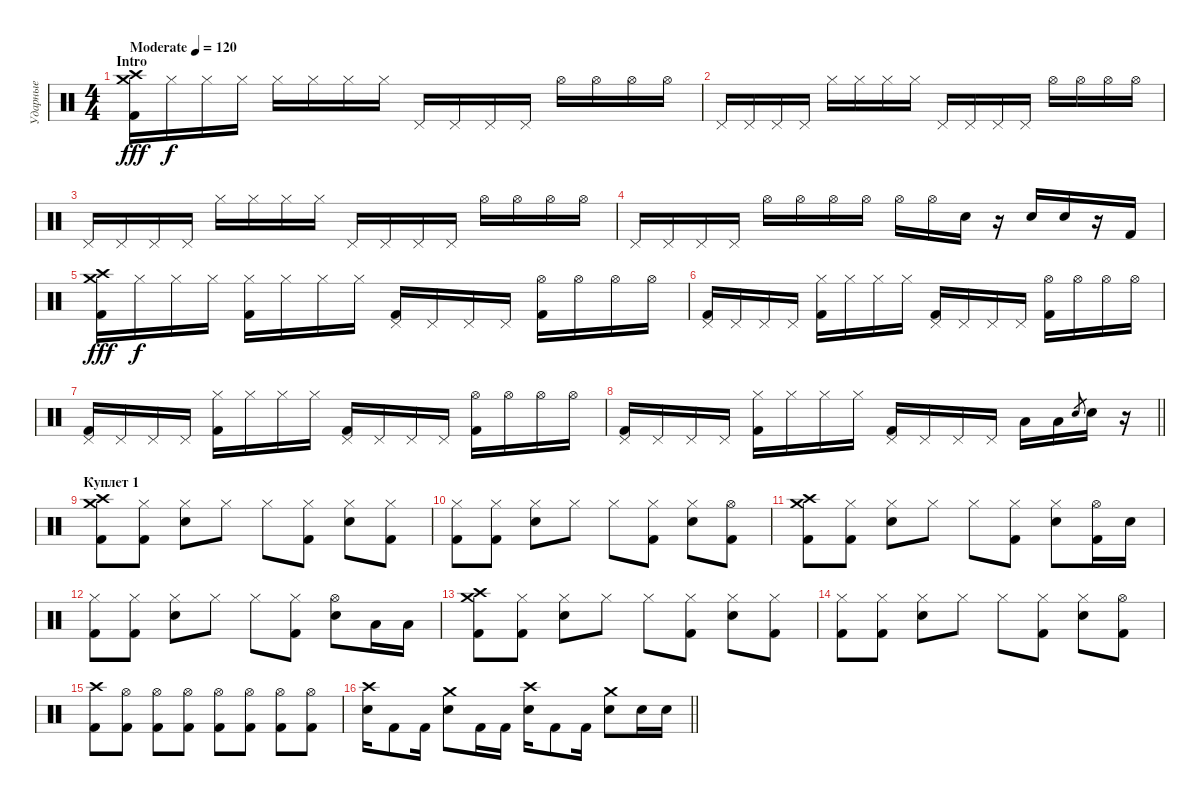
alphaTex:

\track ("Ударные" "Ударные") {instrument percussion}
\staff
\articulation defaults
\ts (4 4)
\section ("" "Intro")
\tempo (120 "Moderate")
\clef neutral
\ks c
("Crash high (hit)" "Crash medium (hit)" "Kick (hit) 2").16{dy fff} "Hi-Hat (closed)".16{dy f} "Hi-Hat (closed)".16 "Hi-Hat (closed)".16 "Hi-Hat (closed)".16 "Hi-Hat (closed)".16 "Hi-Hat (closed)".16 "Hi-Hat (closed)".16 "Pedal Hi-Hat (hit)".16 "Pedal Hi-Hat (hit)".16 "Pedal Hi-Hat (hit)".16 "Pedal Hi-Hat (hit)".16 "Hi-Hat (open)".16 "Hi-Hat (open)".16 "Hi-Hat (open)".16 "Hi-Hat (open)".16 |
"Pedal Hi-Hat (hit)".16 "Pedal Hi-Hat (hit)".16 "Pedal Hi-Hat (hit)".16 "Pedal Hi-Hat (hit)".16 "Hi-Hat (closed)".16 "Hi-Hat (closed)".16 "Hi-Hat (closed)".16 "Hi-Hat (closed)".16 "Pedal Hi-Hat (hit)".16 "Pedal Hi-Hat (hit)".16 "Pedal Hi-Hat (hit)".16 "Pedal Hi-Hat (hit)".16 "Hi-Hat (open)".16 "Hi-Hat (open)".16 "Hi-Hat (open)".16 "Hi-Hat (open)".16 |
"Pedal Hi-Hat (hit)".16 "Pedal Hi-Hat (hit)".16 "Pedal Hi-Hat (hit)".16 "Pedal Hi-Hat (hit)".16 "Hi-Hat (closed)".16 "Hi-Hat (closed)".16 "Hi-Hat (closed)".16 "Hi-Hat (closed)".16 "Pedal Hi-Hat (hit)".16 "Pedal Hi-Hat (hit)".16 "Pedal Hi-Hat (hit)".16 "Pedal Hi-Hat (hit)".16 "Hi-Hat (open)".16 "Hi-Hat (open)".16 "Hi-Hat (open)".16 "Hi-Hat (open)".16 |
"Pedal Hi-Hat (hit)".16 "Pedal Hi-Hat (hit)".16 "Pedal Hi-Hat (hit)".16 "Pedal Hi-Hat (hit)".16 "Hi-Hat (open)".16 "Hi-Hat (open)".16 "Hi-Hat (open)".16 "Hi-Hat (open)".16 "Hi-Hat (open)".16 "Hi-Hat (open)".16 "Electric Snare (hit)".16 r.16 "Electric Snare (hit)".16 "Electric Snare (hit)".16 r.16 "Kick (hit) 2".16 |
("Crash high (hit)" "Crash medium (hit)" "Kick (hit) 2").16{dy fff} "Hi-Hat (closed)".16{dy f} "Hi-Hat (closed)".16 "Hi-Hat (closed)".16 ("Hi-Hat (closed)" "Kick (hit) 2").16 "Hi-Hat (closed)".16 "Hi-Hat (closed)".16 "Hi-Hat (closed)".16 ("Pedal Hi-Hat (hit)" "Kick (hit) 2").16 "Pedal Hi-Hat (hit)".16 "Pedal Hi-Hat (hit)".16 "Pedal Hi-Hat (hit)".16 ("Hi-Hat (open)" "Kick (hit) 2").16 "Hi-Hat (open)".16 "Hi-Hat (open)".16 "Hi-Hat (open)".16 |
("Pedal Hi-Hat (hit)" "Kick (hit) 2").16 "Pedal Hi-Hat (hit)".16 "Pedal Hi-Hat (hit)".16 "Pedal Hi-Hat (hit)".16 ("Hi-Hat (closed)" "Kick (hit) 2").16 "Hi-Hat (closed)".16 "Hi-Hat (closed)".16 "Hi-Hat (closed)".16 ("Pedal Hi-Hat (hit)" "Kick (hit) 2").16 "Pedal Hi-Hat (hit)".16 "Pedal Hi-Hat (hit)".16 "Pedal Hi-Hat (hit)".16 ("Hi-Hat (open)" "Kick (hit) 2").16 "Hi-Hat (open)".16 "Hi-Hat (open)".16 "Hi-Hat (open)".16 |
("Pedal Hi-Hat (hit)" "Kick (hit) 2").16 "Pedal Hi-Hat (hit)".16 "Pedal Hi-Hat (hit)".16 "Pedal Hi-Hat (hit)".16 ("Hi-Hat (closed)" "Kick (hit) 2").16 "Hi-Hat (closed)".16 "Hi-Hat (closed)".16 "Hi-Hat (closed)".16 ("Pedal Hi-Hat (hit)" "Kick (hit) 2").16 "Pedal Hi-Hat (hit)".16 "Pedal Hi-Hat (hit)".16 "Pedal Hi-Hat (hit)".16 ("Hi-Hat (open)" "Kick (hit) 2").16 "Hi-Hat (open)".16 "Hi-Hat (open)".16 "Hi-Hat (open)".16 |
\barLineRight lightlight
("Pedal Hi-Hat (hit)" "Kick (hit) 2").16 "Pedal Hi-Hat (hit)".16 "Pedal Hi-Hat (hit)".16 "Pedal Hi-Hat (hit)".16 ("Hi-Hat (closed)" "Kick (hit) 2").16 "Hi-Hat (closed)".16 "Hi-Hat (closed)".16 "Hi-Hat (closed)".16 ("Pedal Hi-Hat (hit)" "Kick (hit) 2").16 "Pedal Hi-Hat (hit)".16 "Pedal Hi-Hat (hit)".16 "Pedal Hi-Hat (hit)".16 "Low Tom (hit)".16 "Low Tom (hit)".16 "Electric Snare (hit)".8{gr} "Electric Snare (hit)".16 r.16 |
\section ("" "Куплет 1")
("Crash high (hit)" "Crash medium (hit)" "Kick (hit) 2").8 ("Hi-Hat (closed)" "Kick (hit) 2").8 ("Hi-Hat (closed)" "Electric Snare (hit)").8 "Hi-Hat (closed)".8 "Hi-Hat (closed)".8 ("Hi-Hat (closed)" "Kick (hit) 2").8 ("Hi-Hat (closed)" "Electric Snare (hit)").8 ("Hi-Hat (closed)" "Kick (hit) 2").8 |
("Hi-Hat (closed)" "Kick (hit) 2").8 ("Hi-Hat (closed)" "Kick (hit) 2").8 ("Hi-Hat (closed)" "Electric Snare (hit)").8 "Hi-Hat (closed)".8 "Hi-Hat (closed)".8 ("Hi-Hat (closed)" "Kick (hit) 2").8 ("Hi-Hat (closed)" "Electric Snare (hit)").8 ("Hi-Hat (open)" "Kick (hit) 2").8 |
("Crash high (hit)" "Crash medium (hit)" "Kick (hit) 2").8 ("Hi-Hat (closed)" "Kick (hit) 2").8 ("Hi-Hat (closed)" "Electric Snare (hit)").8 "Hi-Hat (closed)".8 "Hi-Hat (closed)".8 ("Hi-Hat (closed)" "Kick (hit) 2").8 ("Hi-Hat (closed)" "Electric Snare (hit)").8 ("Hi-Hat (open)" "Kick (hit) 2").16 "Electric Snare (hit)".16 |
("Hi-Hat (closed)" "Kick (hit) 2").8 ("Hi-Hat (closed)" "Kick (hit) 2").8 ("Hi-Hat (closed)" "Electric Snare (hit)").8 "Hi-Hat (closed)".8 "Hi-Hat (closed)".8 ("Hi-Hat (closed)" "Kick (hit) 2").8 ("Hi-Hat (open)" "Electric Snare (hit)").8 "Low Tom (hit)".16 "Low Tom (hit)".16 |
("Crash high (hit)" "Crash medium (hit)" "Kick (hit) 2").8 ("Hi-Hat (closed)" "Kick (hit) 2").8 ("Hi-Hat (closed)" "Electric Snare (hit)").8 "Hi-Hat (closed)".8 "Hi-Hat (closed)".8 ("Hi-Hat (closed)" "Kick (hit) 2").8 ("Hi-Hat (closed)" "Electric Snare (hit)").8 ("Hi-Hat (closed)" "Kick (hit) 2").8 |
("Hi-Hat (closed)" "Kick (hit) 2").8 ("Hi-Hat (closed)" "Kick (hit) 2").8 ("Hi-Hat (closed)" "Electric Snare (hit)").8 "Hi-Hat (closed)".8 "Hi-Hat (closed)".8 ("Hi-Hat (closed)" "Kick (hit) 2").8 ("Hi-Hat (closed)" "Electric Snare (hit)").8 ("Hi-Hat (open)" "Kick (hit) 2").8 |
("Crash high (hit)" "Kick (hit) 2").8 ("Hi-Hat (open)" "Kick (hit) 2").8 ("Hi-Hat (open)" "Kick (hit) 2").8 ("Hi-Hat (open)" "Kick (hit) 2").8 ("Hi-Hat (open)" "Kick (hit) 2").8 ("Hi-Hat (open)" "Kick (hit) 2").8 ("Hi-Hat (open)" "Kick (hit) 2").8 ("Hi-Hat (open)" "Kick (hit) 2").8 |
\barLineRight lightlight
("Crash high (hit)" "Electric Snare (hit)").16 "Kick (hit) 2".8 "Kick (hit) 2".16 ("Crash medium (hit)" "Electric Snare (hit)").8 "Kick (hit) 2".16 "Kick (hit) 2".16 ("Crash high (hit)" "Electric Snare (hit)").16 "Kick (hit) 2".8 "Kick (hit) 2".16 ("Crash medium (hit)" "Electric Snare (hit)").8 "Electric Snare (hit)".16 "Electric Snare (hit)".16
